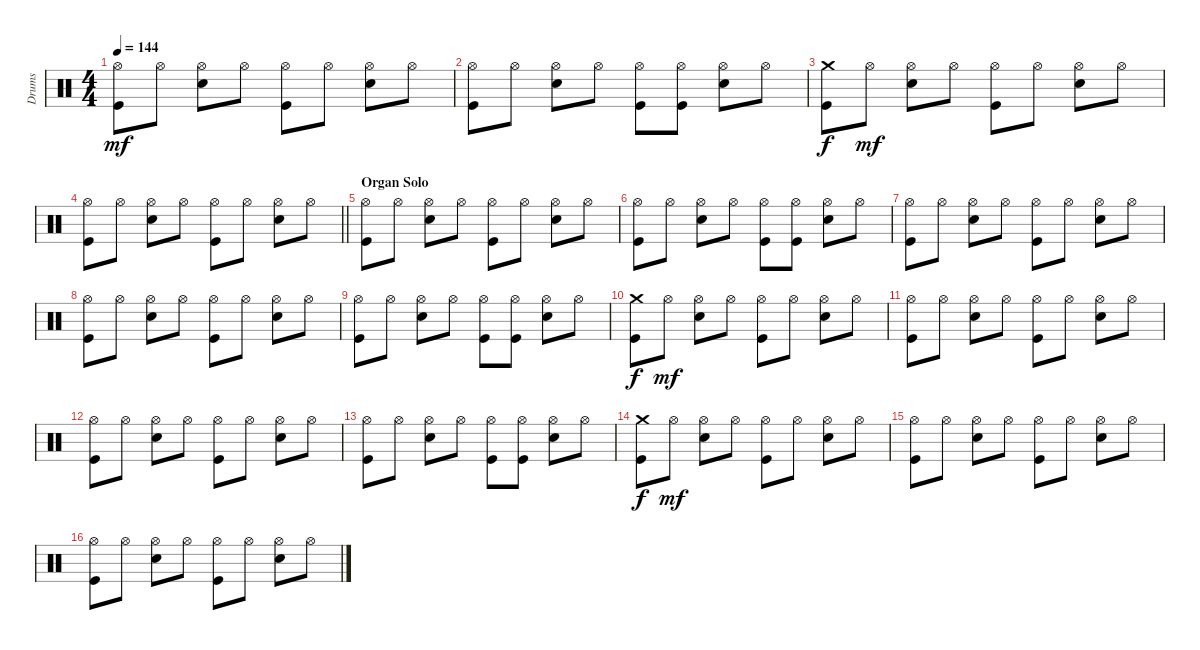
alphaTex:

\track ("Drums" "Drums") {instrument percussion}
\staff {score}
\articulation defaults
\ts (4 4)
\tempo 144
\clef neutral
\ks c
("Hi-Hat (open)" "Kick (hit)").8{dy mf} "Hi-Hat (open)".8 ("Hi-Hat (open)" "Snare (hit) 2").8 "Hi-Hat (open)".8 ("Hi-Hat (open)" "Kick (hit)").8 "Hi-Hat (open)".8 ("Hi-Hat (open)" "Snare (hit) 2").8 "Hi-Hat (open)".8 |
("Hi-Hat (open)" "Kick (hit)").8 "Hi-Hat (open)".8 ("Hi-Hat (open)" "Snare (hit) 2").8 "Hi-Hat (open)".8 ("Hi-Hat (open)" "Kick (hit)").8 ("Hi-Hat (open)" "Kick (hit)").8 ("Hi-Hat (open)" "Snare (hit) 2").8 "Hi-Hat (open)".8 |
("Crash medium (hit)" "Kick (hit)").8{dy f} "Hi-Hat (open)".8{dy mf} ("Hi-Hat (open)" "Snare (hit) 2").8 "Hi-Hat (open)".8 ("Hi-Hat (open)" "Kick (hit)").8 "Hi-Hat (open)".8 ("Hi-Hat (open)" "Snare (hit) 2").8 "Hi-Hat (open)".8 |
\barLineRight lightlight
("Hi-Hat (open)" "Kick (hit)").8 "Hi-Hat (open)".8 ("Hi-Hat (open)" "Snare (hit) 2").8 "Hi-Hat (open)".8 ("Hi-Hat (open)" "Kick (hit)").8 "Hi-Hat (open)".8 ("Hi-Hat (open)" "Snare (hit) 2").8 "Hi-Hat (open)".8 |
\section ("" "Organ Solo")
("Hi-Hat (open)" "Kick (hit)").8 "Hi-Hat (open)".8 ("Hi-Hat (open)" "Snare (hit) 2").8 "Hi-Hat (open)".8 ("Hi-Hat (open)" "Kick (hit)").8 "Hi-Hat (open)".8 ("Hi-Hat (open)" "Snare (hit) 2").8 "Hi-Hat (open)".8 |
("Hi-Hat (open)" "Kick (hit)").8 "Hi-Hat (open)".8 ("Hi-Hat (open)" "Snare (hit) 2").8 "Hi-Hat (open)".8 ("Hi-Hat (open)" "Kick (hit)").8 ("Hi-Hat (open)" "Kick (hit)").8 ("Hi-Hat (open)" "Snare (hit) 2").8 "Hi-Hat (open)".8 |
("Hi-Hat (open)" "Kick (hit)").8 "Hi-Hat (open)".8 ("Hi-Hat (open)" "Snare (hit) 2").8 "Hi-Hat (open)".8 ("Hi-Hat (open)" "Kick (hit)").8 "Hi-Hat (open)".8 ("Hi-Hat (open)" "Snare (hit) 2").8 "Hi-Hat (open)".8 |
("Hi-Hat (open)" "Kick (hit)").8 "Hi-Hat (open)".8 ("Hi-Hat (open)" "Snare (hit) 2").8 "Hi-Hat (open)".8 ("Hi-Hat (open)" "Kick (hit)").8 "Hi-Hat (open)".8 ("Hi-Hat (open)" "Snare (hit) 2").8 "Hi-Hat (open)".8 |
("Hi-Hat (open)" "Kick (hit)").8 "Hi-Hat (open)".8 ("Hi-Hat (open)" "Snare (hit) 2").8 "Hi-Hat (open)".8 ("Hi-Hat (open)" "Kick (hit)").8 ("Hi-Hat (open)" "Kick (hit)").8 ("Hi-Hat (open)" "Snare (hit) 2").8 "Hi-Hat (open)".8 |
("Crash medium (hit)" "Kick (hit)").8{dy f} "Hi-Hat (open)".8{dy mf} ("Hi-Hat (open)" "Snare (hit) 2").8 "Hi-Hat (open)".8 ("Hi-Hat (open)" "Kick (hit)").8 "Hi-Hat (open)".8 ("Hi-Hat (open)" "Snare (hit) 2").8 "Hi-Hat (open)".8 |
("Hi-Hat (open)" "Kick (hit)").8 "Hi-Hat (open)".8 ("Hi-Hat (open)" "Snare (hit) 2").8 "Hi-Hat (open)".8 ("Hi-Hat (open)" "Kick (hit)").8 "Hi-Hat (open)".8 ("Hi-Hat (open)" "Snare (hit) 2").8 "Hi-Hat (open)".8 |
("Hi-Hat (open)" "Kick (hit)").8 "Hi-Hat (open)".8 ("Hi-Hat (open)" "Snare (hit) 2").8 "Hi-Hat (open)".8 ("Hi-Hat (open)" "Kick (hit)").8 "Hi-Hat (open)".8 ("Hi-Hat (open)" "Snare (hit) 2").8 "Hi-Hat (open)".8 |
("Hi-Hat (open)" "Kick (hit)").8 "Hi-Hat (open)".8 ("Hi-Hat (open)" "Snare (hit) 2").8 "Hi-Hat (open)".8 ("Hi-Hat (open)" "Kick (hit)").8 ("Hi-Hat (open)" "Kick (hit)").8 ("Hi-Hat (open)" "Snare (hit) 2").8 "Hi-Hat (open)".8 |
("Crash medium (hit)" "Kick (hit)").8{dy f} "Hi-Hat (open)".8{dy mf} ("Hi-Hat (open)" "Snare (hit) 2").8 "Hi-Hat (open)".8 ("Hi-Hat (open)" "Kick (hit)").8 "Hi-Hat (open)".8 ("Hi-Hat (open)" "Snare (hit) 2").8 "Hi-Hat (open)".8 |
("Hi-Hat (open)" "Kick (hit)").8 "Hi-Hat (open)".8 ("Hi-Hat (open)" "Snare (hit) 2").8 "Hi-Hat (open)".8 ("Hi-Hat (open)" "Kick (hit)").8 "Hi-Hat (open)".8 ("Hi-Hat (open)" "Snare (hit) 2").8 "Hi-Hat (open)".8 |
("Hi-Hat (open)" "Kick (hit)").8 "Hi-Hat (open)".8 ("Hi-Hat (open)" "Snare (hit) 2").8 "Hi-Hat (open)".8 ("Hi-Hat (open)" "Kick (hit)").8 "Hi-Hat (open)".8 ("Hi-Hat (open)" "Snare (hit) 2").8 "Hi-Hat (open)".8
